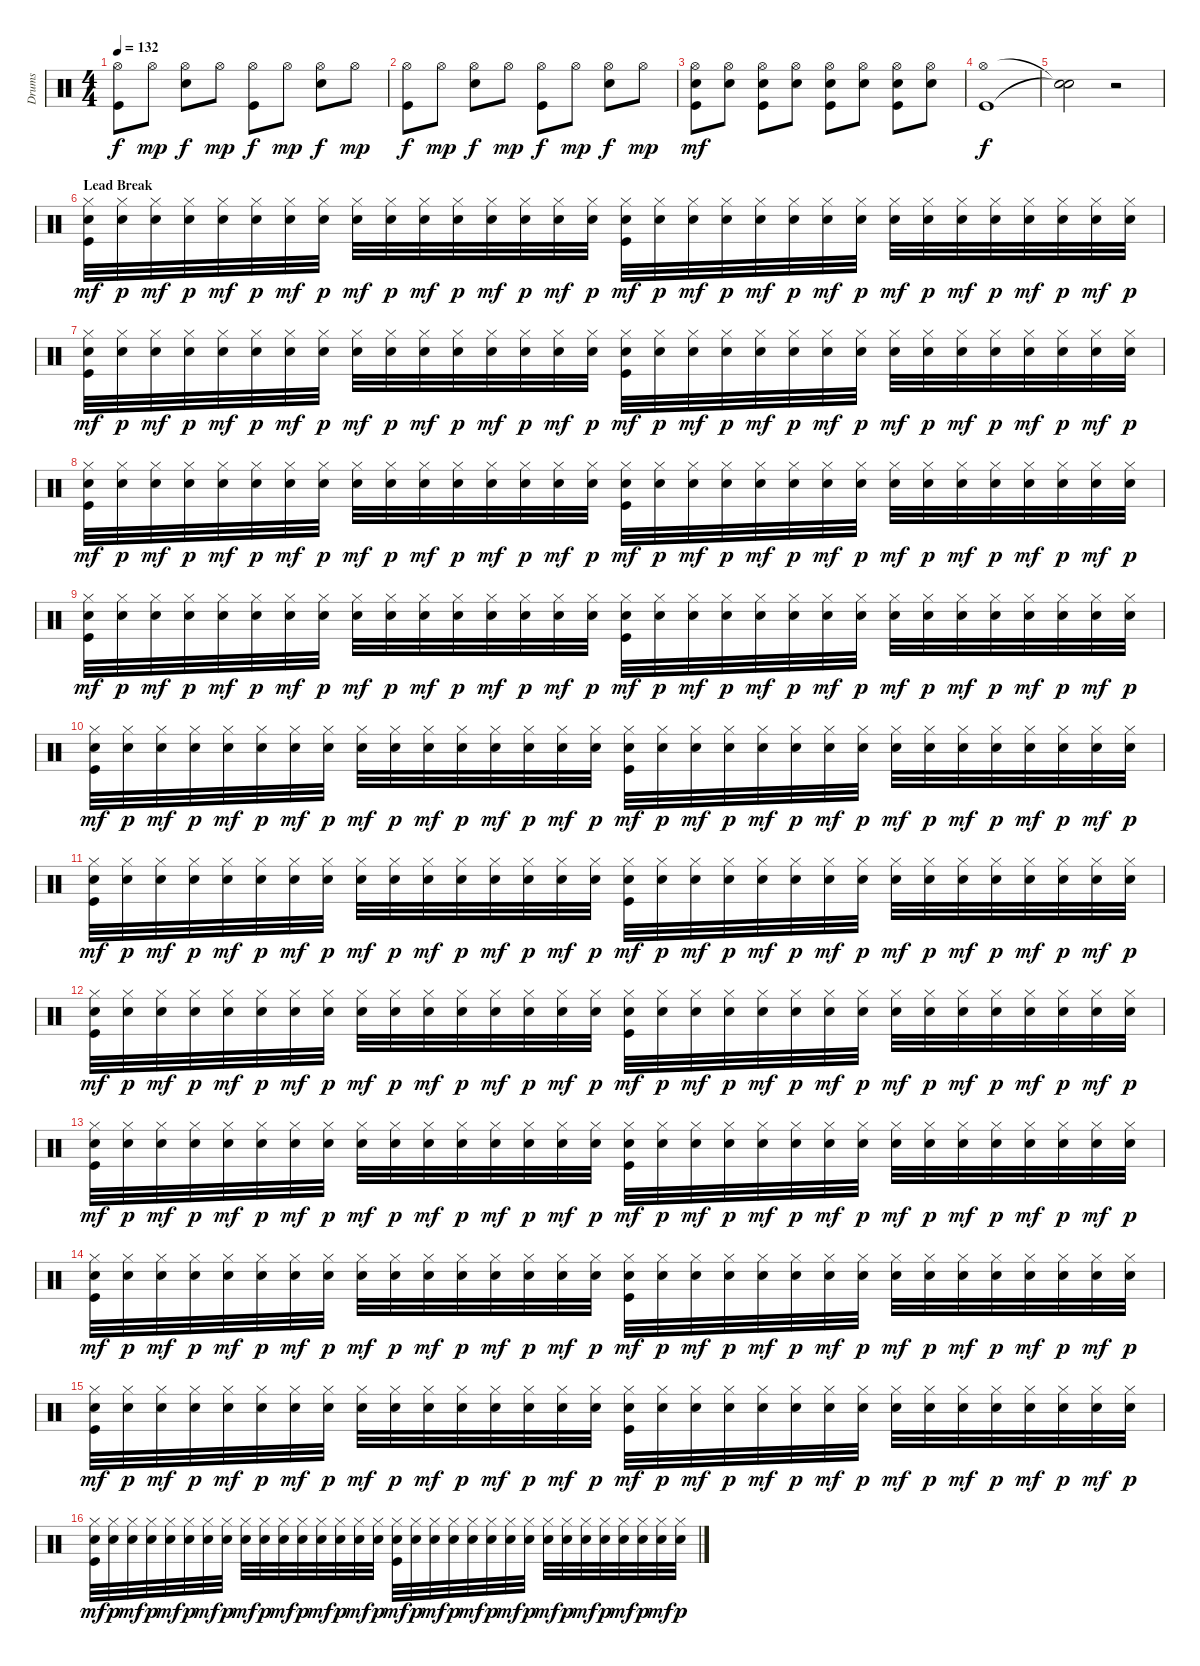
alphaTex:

\track ("Drums" "Drums") {instrument percussion}
\staff {score}
\articulation defaults
\ts (4 4)
\tempo 132
\clef neutral
\ks c
("Hi-Hat (open)" "Kick (hit)").8{dy f} "Hi-Hat (open)".8{dy mp} ("Hi-Hat (open)" "Snare (hit) 2").8{dy f} "Hi-Hat (open)".8{dy mp} ("Hi-Hat (open)" "Kick (hit)").8{dy f} "Hi-Hat (open)".8{dy mp} ("Hi-Hat (open)" "Snare (hit) 2").8{dy f} "Hi-Hat (open)".8{dy mp} |
("Hi-Hat (open)" "Kick (hit)").8{dy f} "Hi-Hat (open)".8{dy mp} ("Hi-Hat (open)" "Snare (hit) 2").8{dy f} "Hi-Hat (open)".8{dy mp} ("Hi-Hat (open)" "Kick (hit)").8{dy f} "Hi-Hat (open)".8{dy mp} ("Hi-Hat (open)" "Snare (hit) 2").8{dy f} "Hi-Hat (open)".8{dy mp} |
("Hi-Hat (open)" "Snare (hit) 2" "Kick (hit)").8{dy mf} ("Hi-Hat (open)" "Snare (hit) 2").8 ("Hi-Hat (open)" "Snare (hit) 2" "Kick (hit)").8 ("Hi-Hat (open)" "Snare (hit) 2").8 ("Hi-Hat (open)" "Snare (hit) 2" "Kick (hit)").8 ("Hi-Hat (open)" "Snare (hit) 2").8 ("Hi-Hat (open)" "Snare (hit) 2" "Kick (hit)").8 ("Hi-Hat (open)" "Snare (hit) 2").8 |
("Hi-Hat (open)" "Kick (hit)").1{dy f} |
("Snare (hit)"{t} "Snare (hit)"{t}).2 r.2 |
\section ("" "Lead Break")
("Hi-Hat (closed)" "Snare (hit) 2" "Kick (hit)").32{dy mf volume 14} ("Hi-Hat (closed)" "Snare (hit) 2").32{dy p} ("Hi-Hat (closed)" "Snare (hit) 2").32{dy mf} ("Hi-Hat (closed)" "Snare (hit) 2").32{dy p} ("Hi-Hat (closed)" "Snare (hit) 2").32{dy mf} ("Hi-Hat (closed)" "Snare (hit) 2").32{dy p} ("Hi-Hat (closed)" "Snare (hit) 2").32{dy mf} ("Hi-Hat (closed)" "Snare (hit) 2").32{dy p} ("Hi-Hat (closed)" "Snare (hit) 2").32{dy mf} ("Hi-Hat (closed)" "Snare (hit) 2").32{dy p} ("Hi-Hat (closed)" "Snare (hit) 2").32{dy mf} ("Hi-Hat (closed)" "Snare (hit) 2").32{dy p} ("Hi-Hat (closed)" "Snare (hit) 2").32{dy mf} ("Hi-Hat (closed)" "Snare (hit) 2").32{dy p} ("Hi-Hat (closed)" "Snare (hit) 2").32{dy mf} ("Hi-Hat (closed)" "Snare (hit) 2").32{dy p} ("Hi-Hat (closed)" "Snare (hit) 2" "Kick (hit)").32{dy mf} ("Hi-Hat (closed)" "Snare (hit) 2").32{dy p} ("Hi-Hat (closed)" "Snare (hit) 2").32{dy mf} ("Hi-Hat (closed)" "Snare (hit) 2").32{dy p} ("Hi-Hat (closed)" "Snare (hit) 2").32{dy mf} ("Hi-Hat (closed)" "Snare (hit) 2").32{dy p} ("Hi-Hat (closed)" "Snare (hit) 2").32{dy mf} ("Hi-Hat (closed)" "Snare (hit) 2").32{dy p} ("Hi-Hat (closed)" "Snare (hit) 2").32{dy mf} ("Hi-Hat (closed)" "Snare (hit) 2").32{dy p} ("Hi-Hat (closed)" "Snare (hit) 2").32{dy mf} ("Hi-Hat (closed)" "Snare (hit) 2").32{dy p} ("Hi-Hat (closed)" "Snare (hit) 2").32{dy mf} ("Hi-Hat (closed)" "Snare (hit) 2").32{dy p} ("Hi-Hat (closed)" "Snare (hit) 2").32{dy mf} ("Hi-Hat (closed)" "Snare (hit) 2").32{dy p} |
("Hi-Hat (closed)" "Snare (hit) 2" "Kick (hit)").32{dy mf} ("Hi-Hat (closed)" "Snare (hit) 2").32{dy p} ("Hi-Hat (closed)" "Snare (hit) 2").32{dy mf} ("Hi-Hat (closed)" "Snare (hit) 2").32{dy p} ("Hi-Hat (closed)" "Snare (hit) 2").32{dy mf} ("Hi-Hat (closed)" "Snare (hit) 2").32{dy p} ("Hi-Hat (closed)" "Snare (hit) 2").32{dy mf} ("Hi-Hat (closed)" "Snare (hit) 2").32{dy p} ("Hi-Hat (closed)" "Snare (hit) 2").32{dy mf} ("Hi-Hat (closed)" "Snare (hit) 2").32{dy p} ("Hi-Hat (closed)" "Snare (hit) 2").32{dy mf} ("Hi-Hat (closed)" "Snare (hit) 2").32{dy p} ("Hi-Hat (closed)" "Snare (hit) 2").32{dy mf} ("Hi-Hat (closed)" "Snare (hit) 2").32{dy p} ("Hi-Hat (closed)" "Snare (hit) 2").32{dy mf} ("Hi-Hat (closed)" "Snare (hit) 2").32{dy p} ("Hi-Hat (closed)" "Snare (hit) 2" "Kick (hit)").32{dy mf} ("Hi-Hat (closed)" "Snare (hit) 2").32{dy p} ("Hi-Hat (closed)" "Snare (hit) 2").32{dy mf} ("Hi-Hat (closed)" "Snare (hit) 2").32{dy p} ("Hi-Hat (closed)" "Snare (hit) 2").32{dy mf} ("Hi-Hat (closed)" "Snare (hit) 2").32{dy p} ("Hi-Hat (closed)" "Snare (hit) 2").32{dy mf} ("Hi-Hat (closed)" "Snare (hit) 2").32{dy p} ("Hi-Hat (closed)" "Snare (hit) 2").32{dy mf} ("Hi-Hat (closed)" "Snare (hit) 2").32{dy p} ("Hi-Hat (closed)" "Snare (hit) 2").32{dy mf} ("Hi-Hat (closed)" "Snare (hit) 2").32{dy p} ("Hi-Hat (closed)" "Snare (hit) 2").32{dy mf} ("Hi-Hat (closed)" "Snare (hit) 2").32{dy p} ("Hi-Hat (closed)" "Snare (hit) 2").32{dy mf} ("Hi-Hat (closed)" "Snare (hit) 2").32{dy p} |
("Hi-Hat (closed)" "Snare (hit) 2" "Kick (hit)").32{dy mf} ("Hi-Hat (closed)" "Snare (hit) 2").32{dy p} ("Hi-Hat (closed)" "Snare (hit) 2").32{dy mf} ("Hi-Hat (closed)" "Snare (hit) 2").32{dy p} ("Hi-Hat (closed)" "Snare (hit) 2").32{dy mf} ("Hi-Hat (closed)" "Snare (hit) 2").32{dy p} ("Hi-Hat (closed)" "Snare (hit) 2").32{dy mf} ("Hi-Hat (closed)" "Snare (hit) 2").32{dy p} ("Hi-Hat (closed)" "Snare (hit) 2").32{dy mf} ("Hi-Hat (closed)" "Snare (hit) 2").32{dy p} ("Hi-Hat (closed)" "Snare (hit) 2").32{dy mf} ("Hi-Hat (closed)" "Snare (hit) 2").32{dy p} ("Hi-Hat (closed)" "Snare (hit) 2").32{dy mf} ("Hi-Hat (closed)" "Snare (hit) 2").32{dy p} ("Hi-Hat (closed)" "Snare (hit) 2").32{dy mf} ("Hi-Hat (closed)" "Snare (hit) 2").32{dy p} ("Hi-Hat (closed)" "Snare (hit) 2" "Kick (hit)").32{dy mf} ("Hi-Hat (closed)" "Snare (hit) 2").32{dy p} ("Hi-Hat (closed)" "Snare (hit) 2").32{dy mf} ("Hi-Hat (closed)" "Snare (hit) 2").32{dy p} ("Hi-Hat (closed)" "Snare (hit) 2").32{dy mf} ("Hi-Hat (closed)" "Snare (hit) 2").32{dy p} ("Hi-Hat (closed)" "Snare (hit) 2").32{dy mf} ("Hi-Hat (closed)" "Snare (hit) 2").32{dy p} ("Hi-Hat (closed)" "Snare (hit) 2").32{dy mf} ("Hi-Hat (closed)" "Snare (hit) 2").32{dy p} ("Hi-Hat (closed)" "Snare (hit) 2").32{dy mf} ("Hi-Hat (closed)" "Snare (hit) 2").32{dy p} ("Hi-Hat (closed)" "Snare (hit) 2").32{dy mf} ("Hi-Hat (closed)" "Snare (hit) 2").32{dy p} ("Hi-Hat (closed)" "Snare (hit) 2").32{dy mf} ("Hi-Hat (closed)" "Snare (hit) 2").32{dy p} |
("Hi-Hat (closed)" "Snare (hit) 2" "Kick (hit)").32{dy mf} ("Hi-Hat (closed)" "Snare (hit) 2").32{dy p} ("Hi-Hat (closed)" "Snare (hit) 2").32{dy mf} ("Hi-Hat (closed)" "Snare (hit) 2").32{dy p} ("Hi-Hat (closed)" "Snare (hit) 2").32{dy mf} ("Hi-Hat (closed)" "Snare (hit) 2").32{dy p} ("Hi-Hat (closed)" "Snare (hit) 2").32{dy mf} ("Hi-Hat (closed)" "Snare (hit) 2").32{dy p} ("Hi-Hat (closed)" "Snare (hit) 2").32{dy mf} ("Hi-Hat (closed)" "Snare (hit) 2").32{dy p} ("Hi-Hat (closed)" "Snare (hit) 2").32{dy mf} ("Hi-Hat (closed)" "Snare (hit) 2").32{dy p} ("Hi-Hat (closed)" "Snare (hit) 2").32{dy mf} ("Hi-Hat (closed)" "Snare (hit) 2").32{dy p} ("Hi-Hat (closed)" "Snare (hit) 2").32{dy mf} ("Hi-Hat (closed)" "Snare (hit) 2").32{dy p} ("Hi-Hat (closed)" "Snare (hit) 2" "Kick (hit)").32{dy mf} ("Hi-Hat (closed)" "Snare (hit) 2").32{dy p} ("Hi-Hat (closed)" "Snare (hit) 2").32{dy mf} ("Hi-Hat (closed)" "Snare (hit) 2").32{dy p} ("Hi-Hat (closed)" "Snare (hit) 2").32{dy mf} ("Hi-Hat (closed)" "Snare (hit) 2").32{dy p} ("Hi-Hat (closed)" "Snare (hit) 2").32{dy mf} ("Hi-Hat (closed)" "Snare (hit) 2").32{dy p} ("Hi-Hat (closed)" "Snare (hit) 2").32{dy mf} ("Hi-Hat (closed)" "Snare (hit) 2").32{dy p} ("Hi-Hat (closed)" "Snare (hit) 2").32{dy mf} ("Hi-Hat (closed)" "Snare (hit) 2").32{dy p} ("Hi-Hat (closed)" "Snare (hit) 2").32{dy mf} ("Hi-Hat (closed)" "Snare (hit) 2").32{dy p} ("Hi-Hat (closed)" "Snare (hit) 2").32{dy mf} ("Hi-Hat (closed)" "Snare (hit) 2").32{dy p} |
("Hi-Hat (closed)" "Snare (hit) 2" "Kick (hit)").32{dy mf} ("Hi-Hat (closed)" "Snare (hit) 2").32{dy p} ("Hi-Hat (closed)" "Snare (hit) 2").32{dy mf} ("Hi-Hat (closed)" "Snare (hit) 2").32{dy p} ("Hi-Hat (closed)" "Snare (hit) 2").32{dy mf} ("Hi-Hat (closed)" "Snare (hit) 2").32{dy p} ("Hi-Hat (closed)" "Snare (hit) 2").32{dy mf} ("Hi-Hat (closed)" "Snare (hit) 2").32{dy p} ("Hi-Hat (closed)" "Snare (hit) 2").32{dy mf} ("Hi-Hat (closed)" "Snare (hit) 2").32{dy p} ("Hi-Hat (closed)" "Snare (hit) 2").32{dy mf} ("Hi-Hat (closed)" "Snare (hit) 2").32{dy p} ("Hi-Hat (closed)" "Snare (hit) 2").32{dy mf} ("Hi-Hat (closed)" "Snare (hit) 2").32{dy p} ("Hi-Hat (closed)" "Snare (hit) 2").32{dy mf} ("Hi-Hat (closed)" "Snare (hit) 2").32{dy p} ("Hi-Hat (closed)" "Snare (hit) 2" "Kick (hit)").32{dy mf} ("Hi-Hat (closed)" "Snare (hit) 2").32{dy p} ("Hi-Hat (closed)" "Snare (hit) 2").32{dy mf} ("Hi-Hat (closed)" "Snare (hit) 2").32{dy p} ("Hi-Hat (closed)" "Snare (hit) 2").32{dy mf} ("Hi-Hat (closed)" "Snare (hit) 2").32{dy p} ("Hi-Hat (closed)" "Snare (hit) 2").32{dy mf} ("Hi-Hat (closed)" "Snare (hit) 2").32{dy p} ("Hi-Hat (closed)" "Snare (hit) 2").32{dy mf} ("Hi-Hat (closed)" "Snare (hit) 2").32{dy p} ("Hi-Hat (closed)" "Snare (hit) 2").32{dy mf} ("Hi-Hat (closed)" "Snare (hit) 2").32{dy p} ("Hi-Hat (closed)" "Snare (hit) 2").32{dy mf} ("Hi-Hat (closed)" "Snare (hit) 2").32{dy p} ("Hi-Hat (closed)" "Snare (hit) 2").32{dy mf} ("Hi-Hat (closed)" "Snare (hit) 2").32{dy p} |
("Hi-Hat (closed)" "Snare (hit) 2" "Kick (hit)").32{dy mf} ("Hi-Hat (closed)" "Snare (hit) 2").32{dy p} ("Hi-Hat (closed)" "Snare (hit) 2").32{dy mf} ("Hi-Hat (closed)" "Snare (hit) 2").32{dy p} ("Hi-Hat (closed)" "Snare (hit) 2").32{dy mf} ("Hi-Hat (closed)" "Snare (hit) 2").32{dy p} ("Hi-Hat (closed)" "Snare (hit) 2").32{dy mf} ("Hi-Hat (closed)" "Snare (hit) 2").32{dy p} ("Hi-Hat (closed)" "Snare (hit) 2").32{dy mf} ("Hi-Hat (closed)" "Snare (hit) 2").32{dy p} ("Hi-Hat (closed)" "Snare (hit) 2").32{dy mf} ("Hi-Hat (closed)" "Snare (hit) 2").32{dy p} ("Hi-Hat (closed)" "Snare (hit) 2").32{dy mf} ("Hi-Hat (closed)" "Snare (hit) 2").32{dy p} ("Hi-Hat (closed)" "Snare (hit) 2").32{dy mf} ("Hi-Hat (closed)" "Snare (hit) 2").32{dy p} ("Hi-Hat (closed)" "Snare (hit) 2" "Kick (hit)").32{dy mf} ("Hi-Hat (closed)" "Snare (hit) 2").32{dy p} ("Hi-Hat (closed)" "Snare (hit) 2").32{dy mf} ("Hi-Hat (closed)" "Snare (hit) 2").32{dy p} ("Hi-Hat (closed)" "Snare (hit) 2").32{dy mf} ("Hi-Hat (closed)" "Snare (hit) 2").32{dy p} ("Hi-Hat (closed)" "Snare (hit) 2").32{dy mf} ("Hi-Hat (closed)" "Snare (hit) 2").32{dy p} ("Hi-Hat (closed)" "Snare (hit) 2").32{dy mf} ("Hi-Hat (closed)" "Snare (hit) 2").32{dy p} ("Hi-Hat (closed)" "Snare (hit) 2").32{dy mf} ("Hi-Hat (closed)" "Snare (hit) 2").32{dy p} ("Hi-Hat (closed)" "Snare (hit) 2").32{dy mf} ("Hi-Hat (closed)" "Snare (hit) 2").32{dy p} ("Hi-Hat (closed)" "Snare (hit) 2").32{dy mf} ("Hi-Hat (closed)" "Snare (hit) 2").32{dy p} |
("Hi-Hat (closed)" "Snare (hit) 2" "Kick (hit)").32{dy mf} ("Hi-Hat (closed)" "Snare (hit) 2").32{dy p} ("Hi-Hat (closed)" "Snare (hit) 2").32{dy mf} ("Hi-Hat (closed)" "Snare (hit) 2").32{dy p} ("Hi-Hat (closed)" "Snare (hit) 2").32{dy mf} ("Hi-Hat (closed)" "Snare (hit) 2").32{dy p} ("Hi-Hat (closed)" "Snare (hit) 2").32{dy mf} ("Hi-Hat (closed)" "Snare (hit) 2").32{dy p} ("Hi-Hat (closed)" "Snare (hit) 2").32{dy mf} ("Hi-Hat (closed)" "Snare (hit) 2").32{dy p} ("Hi-Hat (closed)" "Snare (hit) 2").32{dy mf} ("Hi-Hat (closed)" "Snare (hit) 2").32{dy p} ("Hi-Hat (closed)" "Snare (hit) 2").32{dy mf} ("Hi-Hat (closed)" "Snare (hit) 2").32{dy p} ("Hi-Hat (closed)" "Snare (hit) 2").32{dy mf} ("Hi-Hat (closed)" "Snare (hit) 2").32{dy p} ("Hi-Hat (closed)" "Snare (hit) 2" "Kick (hit)").32{dy mf} ("Hi-Hat (closed)" "Snare (hit) 2").32{dy p} ("Hi-Hat (closed)" "Snare (hit) 2").32{dy mf} ("Hi-Hat (closed)" "Snare (hit) 2").32{dy p} ("Hi-Hat (closed)" "Snare (hit) 2").32{dy mf} ("Hi-Hat (closed)" "Snare (hit) 2").32{dy p} ("Hi-Hat (closed)" "Snare (hit) 2").32{dy mf} ("Hi-Hat (closed)" "Snare (hit) 2").32{dy p} ("Hi-Hat (closed)" "Snare (hit) 2").32{dy mf} ("Hi-Hat (closed)" "Snare (hit) 2").32{dy p} ("Hi-Hat (closed)" "Snare (hit) 2").32{dy mf} ("Hi-Hat (closed)" "Snare (hit) 2").32{dy p} ("Hi-Hat (closed)" "Snare (hit) 2").32{dy mf} ("Hi-Hat (closed)" "Snare (hit) 2").32{dy p} ("Hi-Hat (closed)" "Snare (hit) 2").32{dy mf} ("Hi-Hat (closed)" "Snare (hit) 2").32{dy p} |
("Hi-Hat (closed)" "Snare (hit) 2" "Kick (hit)").32{dy mf} ("Hi-Hat (closed)" "Snare (hit) 2").32{dy p} ("Hi-Hat (closed)" "Snare (hit) 2").32{dy mf} ("Hi-Hat (closed)" "Snare (hit) 2").32{dy p} ("Hi-Hat (closed)" "Snare (hit) 2").32{dy mf} ("Hi-Hat (closed)" "Snare (hit) 2").32{dy p} ("Hi-Hat (closed)" "Snare (hit) 2").32{dy mf} ("Hi-Hat (closed)" "Snare (hit) 2").32{dy p} ("Hi-Hat (closed)" "Snare (hit) 2").32{dy mf} ("Hi-Hat (closed)" "Snare (hit) 2").32{dy p} ("Hi-Hat (closed)" "Snare (hit) 2").32{dy mf} ("Hi-Hat (closed)" "Snare (hit) 2").32{dy p} ("Hi-Hat (closed)" "Snare (hit) 2").32{dy mf} ("Hi-Hat (closed)" "Snare (hit) 2").32{dy p} ("Hi-Hat (closed)" "Snare (hit) 2").32{dy mf} ("Hi-Hat (closed)" "Snare (hit) 2").32{dy p} ("Hi-Hat (closed)" "Snare (hit) 2" "Kick (hit)").32{dy mf} ("Hi-Hat (closed)" "Snare (hit) 2").32{dy p} ("Hi-Hat (closed)" "Snare (hit) 2").32{dy mf} ("Hi-Hat (closed)" "Snare (hit) 2").32{dy p} ("Hi-Hat (closed)" "Snare (hit) 2").32{dy mf} ("Hi-Hat (closed)" "Snare (hit) 2").32{dy p} ("Hi-Hat (closed)" "Snare (hit) 2").32{dy mf} ("Hi-Hat (closed)" "Snare (hit) 2").32{dy p} ("Hi-Hat (closed)" "Snare (hit) 2").32{dy mf} ("Hi-Hat (closed)" "Snare (hit) 2").32{dy p} ("Hi-Hat (closed)" "Snare (hit) 2").32{dy mf} ("Hi-Hat (closed)" "Snare (hit) 2").32{dy p} ("Hi-Hat (closed)" "Snare (hit) 2").32{dy mf} ("Hi-Hat (closed)" "Snare (hit) 2").32{dy p} ("Hi-Hat (closed)" "Snare (hit) 2").32{dy mf} ("Hi-Hat (closed)" "Snare (hit) 2").32{dy p} |
("Hi-Hat (closed)" "Snare (hit) 2" "Kick (hit)").32{dy mf} ("Hi-Hat (closed)" "Snare (hit) 2").32{dy p} ("Hi-Hat (closed)" "Snare (hit) 2").32{dy mf} ("Hi-Hat (closed)" "Snare (hit) 2").32{dy p} ("Hi-Hat (closed)" "Snare (hit) 2").32{dy mf} ("Hi-Hat (closed)" "Snare (hit) 2").32{dy p} ("Hi-Hat (closed)" "Snare (hit) 2").32{dy mf} ("Hi-Hat (closed)" "Snare (hit) 2").32{dy p} ("Hi-Hat (closed)" "Snare (hit) 2").32{dy mf} ("Hi-Hat (closed)" "Snare (hit) 2").32{dy p} ("Hi-Hat (closed)" "Snare (hit) 2").32{dy mf} ("Hi-Hat (closed)" "Snare (hit) 2").32{dy p} ("Hi-Hat (closed)" "Snare (hit) 2").32{dy mf} ("Hi-Hat (closed)" "Snare (hit) 2").32{dy p} ("Hi-Hat (closed)" "Snare (hit) 2").32{dy mf} ("Hi-Hat (closed)" "Snare (hit) 2").32{dy p} ("Hi-Hat (closed)" "Snare (hit) 2" "Kick (hit)").32{dy mf} ("Hi-Hat (closed)" "Snare (hit) 2").32{dy p} ("Hi-Hat (closed)" "Snare (hit) 2").32{dy mf} ("Hi-Hat (closed)" "Snare (hit) 2").32{dy p} ("Hi-Hat (closed)" "Snare (hit) 2").32{dy mf} ("Hi-Hat (closed)" "Snare (hit) 2").32{dy p} ("Hi-Hat (closed)" "Snare (hit) 2").32{dy mf} ("Hi-Hat (closed)" "Snare (hit) 2").32{dy p} ("Hi-Hat (closed)" "Snare (hit) 2").32{dy mf} ("Hi-Hat (closed)" "Snare (hit) 2").32{dy p} ("Hi-Hat (closed)" "Snare (hit) 2").32{dy mf} ("Hi-Hat (closed)" "Snare (hit) 2").32{dy p} ("Hi-Hat (closed)" "Snare (hit) 2").32{dy mf} ("Hi-Hat (closed)" "Snare (hit) 2").32{dy p} ("Hi-Hat (closed)" "Snare (hit) 2").32{dy mf} ("Hi-Hat (closed)" "Snare (hit) 2").32{dy p} |
("Hi-Hat (closed)" "Snare (hit) 2" "Kick (hit)").32{dy mf} ("Hi-Hat (closed)" "Snare (hit) 2").32{dy p} ("Hi-Hat (closed)" "Snare (hit) 2").32{dy mf} ("Hi-Hat (closed)" "Snare (hit) 2").32{dy p} ("Hi-Hat (closed)" "Snare (hit) 2").32{dy mf} ("Hi-Hat (closed)" "Snare (hit) 2").32{dy p} ("Hi-Hat (closed)" "Snare (hit) 2").32{dy mf} ("Hi-Hat (closed)" "Snare (hit) 2").32{dy p} ("Hi-Hat (closed)" "Snare (hit) 2").32{dy mf} ("Hi-Hat (closed)" "Snare (hit) 2").32{dy p} ("Hi-Hat (closed)" "Snare (hit) 2").32{dy mf} ("Hi-Hat (closed)" "Snare (hit) 2").32{dy p} ("Hi-Hat (closed)" "Snare (hit) 2").32{dy mf} ("Hi-Hat (closed)" "Snare (hit) 2").32{dy p} ("Hi-Hat (closed)" "Snare (hit) 2").32{dy mf} ("Hi-Hat (closed)" "Snare (hit) 2").32{dy p} ("Hi-Hat (closed)" "Snare (hit) 2" "Kick (hit)").32{dy mf} ("Hi-Hat (closed)" "Snare (hit) 2").32{dy p} ("Hi-Hat (closed)" "Snare (hit) 2").32{dy mf} ("Hi-Hat (closed)" "Snare (hit) 2").32{dy p} ("Hi-Hat (closed)" "Snare (hit) 2").32{dy mf} ("Hi-Hat (closed)" "Snare (hit) 2").32{dy p} ("Hi-Hat (closed)" "Snare (hit) 2").32{dy mf} ("Hi-Hat (closed)" "Snare (hit) 2").32{dy p} ("Hi-Hat (closed)" "Snare (hit) 2").32{dy mf} ("Hi-Hat (closed)" "Snare (hit) 2").32{dy p} ("Hi-Hat (closed)" "Snare (hit) 2").32{dy mf} ("Hi-Hat (closed)" "Snare (hit) 2").32{dy p} ("Hi-Hat (closed)" "Snare (hit) 2").32{dy mf} ("Hi-Hat (closed)" "Snare (hit) 2").32{dy p} ("Hi-Hat (closed)" "Snare (hit) 2").32{dy mf} ("Hi-Hat (closed)" "Snare (hit) 2").32{dy p} |
("Hi-Hat (closed)" "Snare (hit) 2" "Kick (hit)").32{dy mf} ("Hi-Hat (closed)" "Snare (hit) 2").32{dy p} ("Hi-Hat (closed)" "Snare (hit) 2").32{dy mf} ("Hi-Hat (closed)" "Snare (hit) 2").32{dy p} ("Hi-Hat (closed)" "Snare (hit) 2").32{dy mf} ("Hi-Hat (closed)" "Snare (hit) 2").32{dy p} ("Hi-Hat (closed)" "Snare (hit) 2").32{dy mf} ("Hi-Hat (closed)" "Snare (hit) 2").32{dy p} ("Hi-Hat (closed)" "Snare (hit) 2").32{dy mf} ("Hi-Hat (closed)" "Snare (hit) 2").32{dy p} ("Hi-Hat (closed)" "Snare (hit) 2").32{dy mf} ("Hi-Hat (closed)" "Snare (hit) 2").32{dy p} ("Hi-Hat (closed)" "Snare (hit) 2").32{dy mf} ("Hi-Hat (closed)" "Snare (hit) 2").32{dy p} ("Hi-Hat (closed)" "Snare (hit) 2").32{dy mf} ("Hi-Hat (closed)" "Snare (hit) 2").32{dy p} ("Hi-Hat (closed)" "Snare (hit) 2" "Kick (hit)").32{dy mf} ("Hi-Hat (closed)" "Snare (hit) 2").32{dy p} ("Hi-Hat (closed)" "Snare (hit) 2").32{dy mf} ("Hi-Hat (closed)" "Snare (hit) 2").32{dy p} ("Hi-Hat (closed)" "Snare (hit) 2").32{dy mf} ("Hi-Hat (closed)" "Snare (hit) 2").32{dy p} ("Hi-Hat (closed)" "Snare (hit) 2").32{dy mf} ("Hi-Hat (closed)" "Snare (hit) 2").32{dy p} ("Hi-Hat (closed)" "Snare (hit) 2").32{dy mf} ("Hi-Hat (closed)" "Snare (hit) 2").32{dy p} ("Hi-Hat (closed)" "Snare (hit) 2").32{dy mf} ("Hi-Hat (closed)" "Snare (hit) 2").32{dy p} ("Hi-Hat (closed)" "Snare (hit) 2").32{dy mf} ("Hi-Hat (closed)" "Snare (hit) 2").32{dy p} ("Hi-Hat (closed)" "Snare (hit) 2").32{dy mf} ("Hi-Hat (closed)" "Snare (hit) 2").32{dy p}
